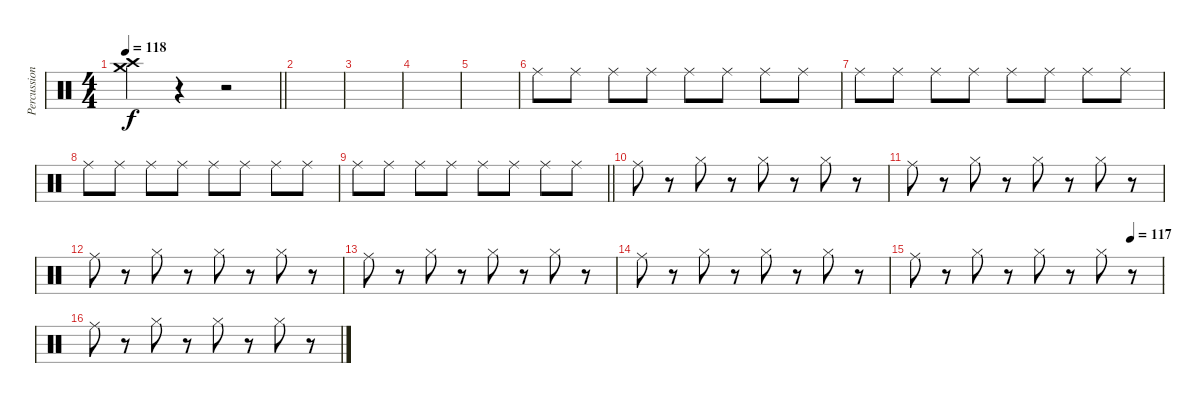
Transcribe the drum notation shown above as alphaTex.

\track ("Percussion" "Percussion") {instrument percussion}
\staff {score}
\articulation defaults
\ts (4 4)
\tempo 118
\clef neutral
\barLineRight lightlight
\ks c
("Crash high (hit)" "Crash medium (hit)").4{dy f} r.4 r.2 |
|
|
|
|
"Ride (middle)".8 "Ride (middle)".8 "Ride (middle)".8 "Ride (middle)".8 "Ride (middle)".8 "Ride (middle)".8 "Ride (middle)".8 "Ride (middle)".8 |
"Ride (middle)".8 "Ride (middle)".8 "Ride (middle)".8 "Ride (middle)".8 "Ride (middle)".8 "Ride (middle)".8 "Ride (middle)".8 "Ride (middle)".8 |
"Ride (middle)".8 "Ride (middle)".8 "Ride (middle)".8 "Ride (middle)".8 "Ride (middle)".8 "Ride (middle)".8 "Ride (middle)".8 "Ride (middle)".8 |
\barLineRight lightlight "Ride (middle)".8 "Ride (middle)".8 "Ride (middle)".8 "Ride (middle)".8 "Ride (middle)".8 "Ride (middle)".8 "Ride (middle)".8 "Ride (middle)".8
|
"Ride (middle)".8 r.8 "Hi-Hat (closed)".8 r.8 "Hi-Hat (closed)".8 r.8 "Hi-Hat (closed)".8 r.8 |
"Ride (middle)".8 r.8 "Hi-Hat (closed)".8 r.8 "Hi-Hat (closed)".8 r.8 "Hi-Hat (closed)".8 r.8 |
"Ride (middle)".8 r.8 "Hi-Hat (closed)".8 r.8 "Hi-Hat (closed)".8 r.8 "Hi-Hat (closed)".8 r.8 |
"Ride (middle)".8 r.8 "Hi-Hat (closed)".8 r.8 "Hi-Hat (closed)".8 r.8 "Hi-Hat (closed)".8 r.8 |
"Ride (middle)".8 r.8 "Hi-Hat (closed)".8 r.8 "Hi-Hat (closed)".8 r.8 "Hi-Hat (closed)".8 r.8 |
\tempo (117 0.875)
"Ride (middle)".8 r.8 "Hi-Hat (closed)".8 r.8 "Hi-Hat (closed)".8 r.8 "Hi-Hat (closed)".8 r.8 |
"Ride (middle)".8 r.8 "Hi-Hat (closed)".8 r.8 "Hi-Hat (closed)".8 r.8 "Hi-Hat (closed)".8 r.8
